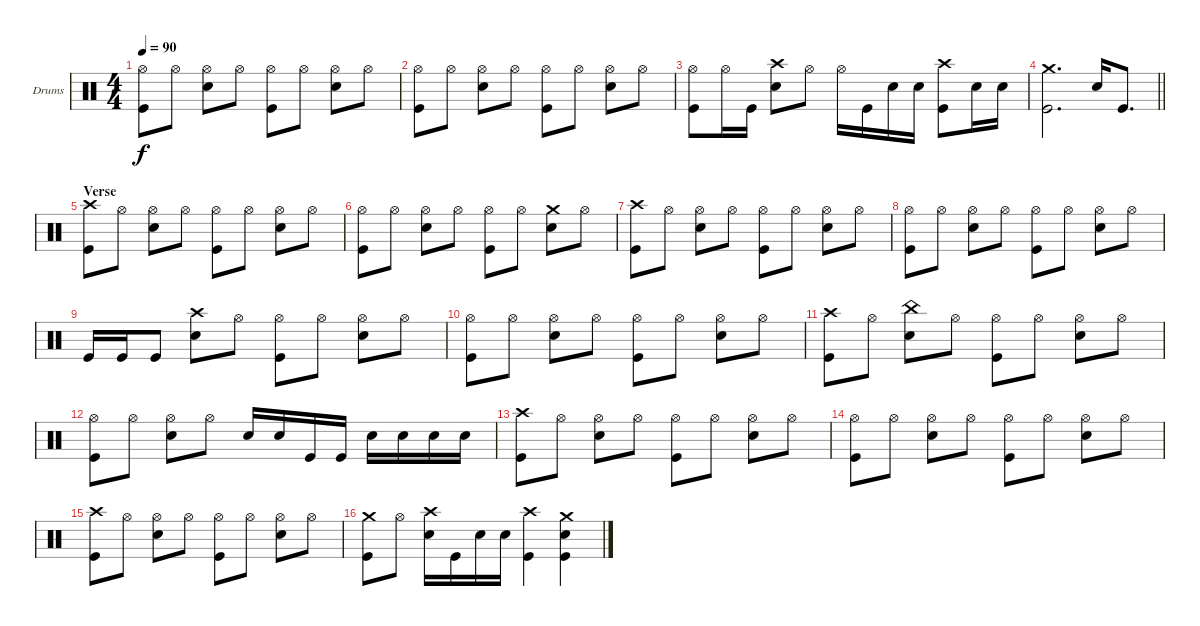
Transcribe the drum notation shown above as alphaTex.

\bracketExtendMode groupsimilarinstruments
\firstSystemTrackNameOrientation horizontal
\otherSystemsTrackNameOrientation horizontal
\track ("Drumkit" "Drums") {instrument percussion}
\staff {score}
\articulation defaults
\ts (4 4)
\tempo 90
\clef neutral
\ks c
("Hi-Hat (open)" "Kick (hit)").8{dy f} "Hi-Hat (open)".8 ("Hi-Hat (open)" "Snare (hit) 2").8 "Hi-Hat (open)".8 ("Hi-Hat (open)" "Kick (hit)").8 "Hi-Hat (open)".8 ("Hi-Hat (open)" "Snare (hit) 2").8 "Hi-Hat (open)".8 |
("Hi-Hat (open)" "Kick (hit)").8 "Hi-Hat (open)".8 ("Hi-Hat (open)" "Snare (hit) 2").8 "Hi-Hat (open)".8 ("Hi-Hat (open)" "Kick (hit)").8 "Hi-Hat (open)".8 ("Hi-Hat (open)" "Snare (hit) 2").8 "Hi-Hat (open)".8 |
("Hi-Hat (open)" "Kick (hit)").8 "Hi-Hat (open)".16 "Kick (hit)".16 ("Crash high (hit)" "Snare (hit) 2").8 "Hi-Hat (open)".8 "Hi-Hat (open)".16 "Kick (hit)".16 "Snare (hit) 2".16 "Snare (hit) 2".16 ("Crash high (hit)" "Kick (hit)").8 "Snare (hit) 2".16 "Snare (hit) 2".16 |
\barLineRight lightlight
("Crash medium (hit)" "Kick (hit)").2{d} "Snare (hit) 2".16 "Kick (hit)".8{d} |
\section ("" "Verse")
("Crash high (hit)" "Kick (hit)").8 "Hi-Hat (open)".8 ("Hi-Hat (open)" "Snare (hit) 2").8 "Hi-Hat (open)".8 ("Hi-Hat (open)" "Kick (hit)").8 "Hi-Hat (open)".8 ("Hi-Hat (open)" "Snare (hit) 2").8 "Hi-Hat (open)".8 |
("Hi-Hat (open)" "Kick (hit)").8 "Hi-Hat (open)".8 ("Hi-Hat (open)" "Snare (hit) 2").8 "Hi-Hat (open)".8 ("Hi-Hat (open)" "Kick (hit)").8 "Hi-Hat (open)".8 ("Crash medium (hit)" "Snare (hit) 2").8 "Hi-Hat (open)".8 |
("Crash high (hit)" "Kick (hit)").8 "Hi-Hat (open)".8 ("Hi-Hat (open)" "Snare (hit) 2").8 "Hi-Hat (open)".8 ("Hi-Hat (open)" "Kick (hit)").8 "Hi-Hat (open)".8 ("Hi-Hat (open)" "Snare (hit) 2").8 "Hi-Hat (open)".8 |
("Hi-Hat (open)" "Kick (hit)").8 "Hi-Hat (open)".8 ("Hi-Hat (open)" "Snare (hit) 2").8 "Hi-Hat (open)".8 ("Hi-Hat (open)" "Kick (hit)").8 "Hi-Hat (open)".8 ("Hi-Hat (open)" "Snare (hit) 2").8 "Hi-Hat (open)".8 |
"Kick (hit)".16 "Kick (hit)".16 "Kick (hit)".8 ("Crash high (hit)" "Snare (hit) 2").8 "Hi-Hat (open)".8 ("Hi-Hat (open)" "Kick (hit)").8 "Hi-Hat (open)".8 ("Hi-Hat (open)" "Snare (hit) 2").8 "Hi-Hat (open)".8 |
("Hi-Hat (open)" "Kick (hit)").8 "Hi-Hat (open)".8 ("Hi-Hat (open)" "Snare (hit) 2").8 "Hi-Hat (open)".8 ("Hi-Hat (open)" "Kick (hit)").8 "Hi-Hat (open)".8 ("Hi-Hat (open)" "Snare (hit) 2").8 "Hi-Hat (open)".8 |
("Crash high (hit)" "Kick (hit)").8 "Hi-Hat (open)".8 ("China (hit)" "Snare (hit) 2").8 "Hi-Hat (open)".8 ("Hi-Hat (open)" "Kick (hit)").8 "Hi-Hat (open)".8 ("Hi-Hat (open)" "Snare (hit) 2").8 "Hi-Hat (open)".8 |
("Hi-Hat (open)" "Kick (hit)").8 "Hi-Hat (open)".8 ("Hi-Hat (open)" "Snare (hit) 2").8 "Hi-Hat (open)".8 "Snare (hit) 2".16 "Snare (hit) 2".16 "Kick (hit)".16 "Kick (hit)".16 "Snare (hit) 2".16 "Snare (hit) 2".16 "Snare (hit) 2".16 "Snare (hit) 2".16 |
("Crash high (hit)" "Kick (hit)").8 "Hi-Hat (open)".8 ("Hi-Hat (open)" "Snare (hit) 2").8 "Hi-Hat (open)".8 ("Hi-Hat (open)" "Kick (hit)").8 "Hi-Hat (open)".8 ("Hi-Hat (open)" "Snare (hit) 2").8 "Hi-Hat (open)".8 |
("Hi-Hat (open)" "Kick (hit)").8 "Hi-Hat (open)".8 ("Hi-Hat (open)" "Snare (hit) 2").8 "Hi-Hat (open)".8 ("Hi-Hat (open)" "Kick (hit)").8 "Hi-Hat (open)".8 ("Hi-Hat (open)" "Snare (hit) 2").8 "Hi-Hat (open)".8 |
("Crash high (hit)" "Kick (hit)").8 "Hi-Hat (open)".8 ("Hi-Hat (open)" "Snare (hit) 2").8 "Hi-Hat (open)".8 ("Hi-Hat (open)" "Kick (hit)").8 "Hi-Hat (open)".8 ("Hi-Hat (open)" "Snare (hit) 2").8 "Hi-Hat (open)".8 |
("Crash medium (hit)" "Kick (hit)").8 "Hi-Hat (open)".8 ("Crash high (hit)" "Snare (hit) 2").16 "Kick (hit)".16 "Snare (hit) 2".16 "Snare (hit) 2".16 ("Crash high (hit)" "Kick (hit)").4 ("Crash medium (hit)" "Snare (hit) 2" "Kick (hit)").4
